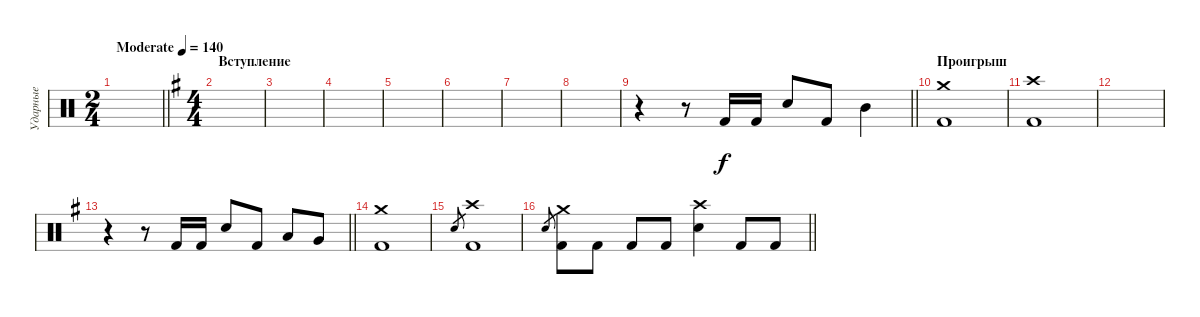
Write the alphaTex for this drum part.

\track ("Ударные" "Ударные") {instrument percussion}
\staff {score}
\articulation defaults
\ts (2 4)
\tempo (140 "Moderate")
\clef neutral
\barLineRight lightlight
\ks c
|
\ts (4 4)
\section ("" "Вступление")
\ks eminor
|
|
|
|
|
|
|
\barLineRight lightlight
r.4 r.8 "Kick (hit) 2".16 "Kick (hit) 2".16 "Electric Snare (hit)".8 "Kick (hit) 2".8 "Mid Tom (hit)".4 |
\section ("" "Проигрыш")
("Crash medium (hit)" "Kick (hit) 2").1 |
("Crash high (hit)" "Kick (hit) 2").1 |
|
\barLineRight lightlight
r.4 r.8 "Kick (hit) 2".16 "Kick (hit) 2".16 "Electric Snare (hit)".8 "Kick (hit) 2".8 "Low Tom (hit)".8 "Very Low Tom (hit)".8 |
("Crash medium (hit)" "Kick (hit) 2").1 |
"Electric Snare (hit)".8{gr} ("Crash high (hit)" "Kick (hit) 2").1 |
\barLineRight lightlight "Electric Snare (hit)".8{gr}
("Crash medium (hit)" "Kick (hit) 2").8 "Kick (hit) 2".8 "Kick (hit) 2".8 "Kick (hit) 2".8 ("Crash high (hit)" "Electric Snare (hit)").4 "Kick (hit) 2".8 "Kick (hit) 2".8
